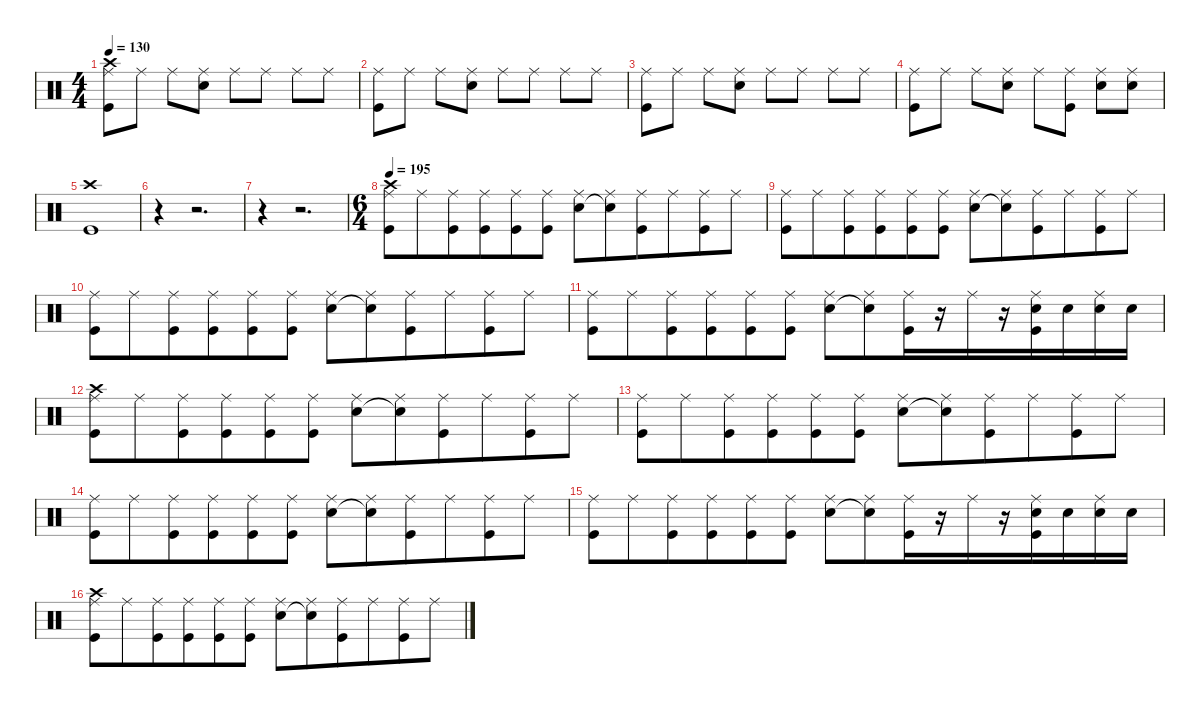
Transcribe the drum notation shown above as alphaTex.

\defaultSystemsLayout 4
\hideDynamics
\bracketExtendMode nobrackets
\singleTrackTrackNamePolicy hidden
\multiTrackTrackNamePolicy hidden
\firstSystemTrackNameMode fullname
\firstSystemTrackNameOrientation horizontal
\otherSystemsTrackNameOrientation horizontal
\track ("Percussion" "drm.") {instrument percussion}
\staff {score}
\articulation defaults
\ts (4 4)
\tempo 130
\clef neutral
\ks c
("Crash high (hit)" "Ride (middle)" "Kick (hit)").8{dy f beam Down} "Ride (middle)".8{beam Down} "Ride (middle)".8{beam Down} ("Ride (middle)" "Snare (hit) 2").8{beam Down} "Ride (middle)".8{beam Down} "Ride (middle)".8{beam Down} "Ride (middle)".8{beam Down} "Ride (middle)".8{beam Down} |
("Ride (middle)" "Kick (hit)").8{beam Down} "Ride (middle)".8{beam Down} "Ride (middle)".8{beam Down} ("Ride (middle)" "Snare (hit) 2").8{beam Down} "Ride (middle)".8{beam Down} "Ride (middle)".8{beam Down} "Ride (middle)".8{beam Down} "Ride (middle)".8{beam Down} |
("Ride (middle)" "Kick (hit)").8{beam Down} "Ride (middle)".8{beam Down} "Ride (middle)".8{beam Down} ("Ride (middle)" "Snare (hit) 2").8{beam Down} "Ride (middle)".8{beam Down} "Ride (middle)".8{beam Down} "Ride (middle)".8{beam Down} "Ride (middle)".8{beam Down} |
("Ride (middle)" "Kick (hit)").8{beam Down} "Ride (middle)".8{beam Down} "Ride (middle)".8{beam Down} ("Ride (middle)" "Snare (hit) 2").8{beam Down} "Ride (middle)".8{beam Down} ("Ride (middle)" "Kick (hit)").8{beam Down} ("Ride (middle)" "Snare (hit) 2").8{beam Down} ("Ride (middle)" "Snare (hit) 2").8{beam Down} |
("Crash high (hit)" "Kick (hit)").1{beam Down} |
r.4{beam Down} r.2{d beam Down} |
r.4{beam Down} r.2{d beam Down} |
\ts (6 4)
\beaming (8 6 6)
\tempo 195
("Crash high (hit)" "Ride (middle)" "Kick (hit)").8{beam Down} "Ride (middle)".8{beam Down} ("Ride (middle)" "Kick (hit)").8{beam Down} ("Ride (middle)" "Kick (hit)").8{beam Down} ("Ride (middle)" "Kick (hit)").8{beam Down} ("Ride (middle)" "Kick (hit)").8{beam Down} ("Ride (middle)" "Snare (hit) 2").8{beam Down} ("Ride (middle)" "Snare (hit) 2"{t}).8{beam Down} ("Ride (middle)" "Kick (hit)").8{beam Down} "Ride (middle)".8{beam Down} ("Ride (middle)" "Kick (hit)").8{beam Down} "Ride (middle)".8{beam Down} |
("Ride (middle)" "Kick (hit)").8{beam Down} "Ride (middle)".8{beam Down} ("Ride (middle)" "Kick (hit)").8{beam Down} ("Ride (middle)" "Kick (hit)").8{beam Down} ("Ride (middle)" "Kick (hit)").8{beam Down} ("Ride (middle)" "Kick (hit)").8{beam Down} ("Ride (middle)" "Snare (hit) 2").8{beam Down} ("Ride (middle)" "Snare (hit) 2"{t}).8{beam Down} ("Ride (middle)" "Kick (hit)").8{beam Down} "Ride (middle)".8{beam Down} ("Ride (middle)" "Kick (hit)").8{beam Down} "Ride (middle)".8{beam Down} |
("Ride (middle)" "Kick (hit)").8{beam Down} "Ride (middle)".8{beam Down} ("Ride (middle)" "Kick (hit)").8{beam Down} ("Ride (middle)" "Kick (hit)").8{beam Down} ("Ride (middle)" "Kick (hit)").8{beam Down} ("Ride (middle)" "Kick (hit)").8{beam Down} ("Ride (middle)" "Snare (hit) 2").8{beam Down} ("Ride (middle)" "Snare (hit) 2"{t}).8{beam Down} ("Ride (middle)" "Kick (hit)").8{beam Down} "Ride (middle)".8{beam Down} ("Ride (middle)" "Kick (hit)").8{beam Down} "Ride (middle)".8{beam Down} |
("Ride (middle)" "Kick (hit)").8{beam Down} "Ride (middle)".8{beam Down} ("Ride (middle)" "Kick (hit)").8{beam Down} ("Ride (middle)" "Kick (hit)").8{beam Down} ("Ride (middle)" "Kick (hit)").8{beam Down} ("Ride (middle)" "Kick (hit)").8{beam Down} ("Ride (middle)" "Snare (hit) 2").8{beam Down} ("Ride (middle)" "Snare (hit) 2"{t}).8{beam Down} ("Ride (middle)" "Kick (hit)").16{beam Down} r.16{beam Down} "Ride (middle)".16{beam Down} r.16{beam Down} ("Ride (middle)" "Snare (hit) 2" "Kick (hit)").16{beam Down} "Snare (hit) 2".16{beam Down} ("Ride (middle)" "Snare (hit) 2").16{beam Down} "Snare (hit) 2".16{beam Down} |
("Crash high (hit)" "Ride (middle)" "Kick (hit)").8{beam Down} "Ride (middle)".8{beam Down} ("Ride (middle)" "Kick (hit)").8{beam Down} ("Ride (middle)" "Kick (hit)").8{beam Down} ("Ride (middle)" "Kick (hit)").8{beam Down} ("Ride (middle)" "Kick (hit)").8{beam Down} ("Ride (middle)" "Snare (hit) 2").8{beam Down} ("Ride (middle)" "Snare (hit) 2"{t}).8{beam Down} ("Ride (middle)" "Kick (hit)").8{beam Down} "Ride (middle)".8{beam Down} ("Ride (middle)" "Kick (hit)").8{beam Down} "Ride (middle)".8{beam Down} |
("Ride (middle)" "Kick (hit)").8{beam Down} "Ride (middle)".8{beam Down} ("Ride (middle)" "Kick (hit)").8{beam Down} ("Ride (middle)" "Kick (hit)").8{beam Down} ("Ride (middle)" "Kick (hit)").8{beam Down} ("Ride (middle)" "Kick (hit)").8{beam Down} ("Ride (middle)" "Snare (hit) 2").8{beam Down} ("Ride (middle)" "Snare (hit) 2"{t}).8{beam Down} ("Ride (middle)" "Kick (hit)").8{beam Down} "Ride (middle)".8{beam Down} ("Ride (middle)" "Kick (hit)").8{beam Down} "Ride (middle)".8{beam Down} |
("Ride (middle)" "Kick (hit)").8{beam Down} "Ride (middle)".8{beam Down} ("Ride (middle)" "Kick (hit)").8{beam Down} ("Ride (middle)" "Kick (hit)").8{beam Down} ("Ride (middle)" "Kick (hit)").8{beam Down} ("Ride (middle)" "Kick (hit)").8{beam Down} ("Ride (middle)" "Snare (hit) 2").8{beam Down} ("Ride (middle)" "Snare (hit) 2"{t}).8{beam Down} ("Ride (middle)" "Kick (hit)").8{beam Down} "Ride (middle)".8{beam Down} ("Ride (middle)" "Kick (hit)").8{beam Down} "Ride (middle)".8{beam Down} |
("Ride (middle)" "Kick (hit)").8{beam Down} "Ride (middle)".8{beam Down} ("Ride (middle)" "Kick (hit)").8{beam Down} ("Ride (middle)" "Kick (hit)").8{beam Down} ("Ride (middle)" "Kick (hit)").8{beam Down} ("Ride (middle)" "Kick (hit)").8{beam Down} ("Ride (middle)" "Snare (hit) 2").8{beam Down} ("Ride (middle)" "Snare (hit) 2"{t}).8{beam Down} ("Ride (middle)" "Kick (hit)").16{beam Down} r.16{beam Down} "Ride (middle)".16{beam Down} r.16{beam Down} ("Ride (middle)" "Snare (hit) 2" "Kick (hit)").16{beam Down} "Snare (hit) 2".16{beam Down} ("Ride (middle)" "Snare (hit) 2").16{beam Down} "Snare (hit) 2".16{beam Down} |
("Crash high (hit)" "Ride (middle)" "Kick (hit)").8{beam Down} "Ride (middle)".8{beam Down} ("Ride (middle)" "Kick (hit)").8{beam Down} ("Ride (middle)" "Kick (hit)").8{beam Down} ("Ride (middle)" "Kick (hit)").8{beam Down} ("Ride (middle)" "Kick (hit)").8{beam Down} ("Ride (middle)" "Snare (hit) 2").8{beam Down} ("Ride (middle)" "Snare (hit) 2"{t}).8{beam Down} ("Ride (middle)" "Kick (hit)").8{beam Down} "Ride (middle)".8{beam Down} ("Ride (middle)" "Kick (hit)").8{beam Down} "Ride (middle)".8{beam Down}
